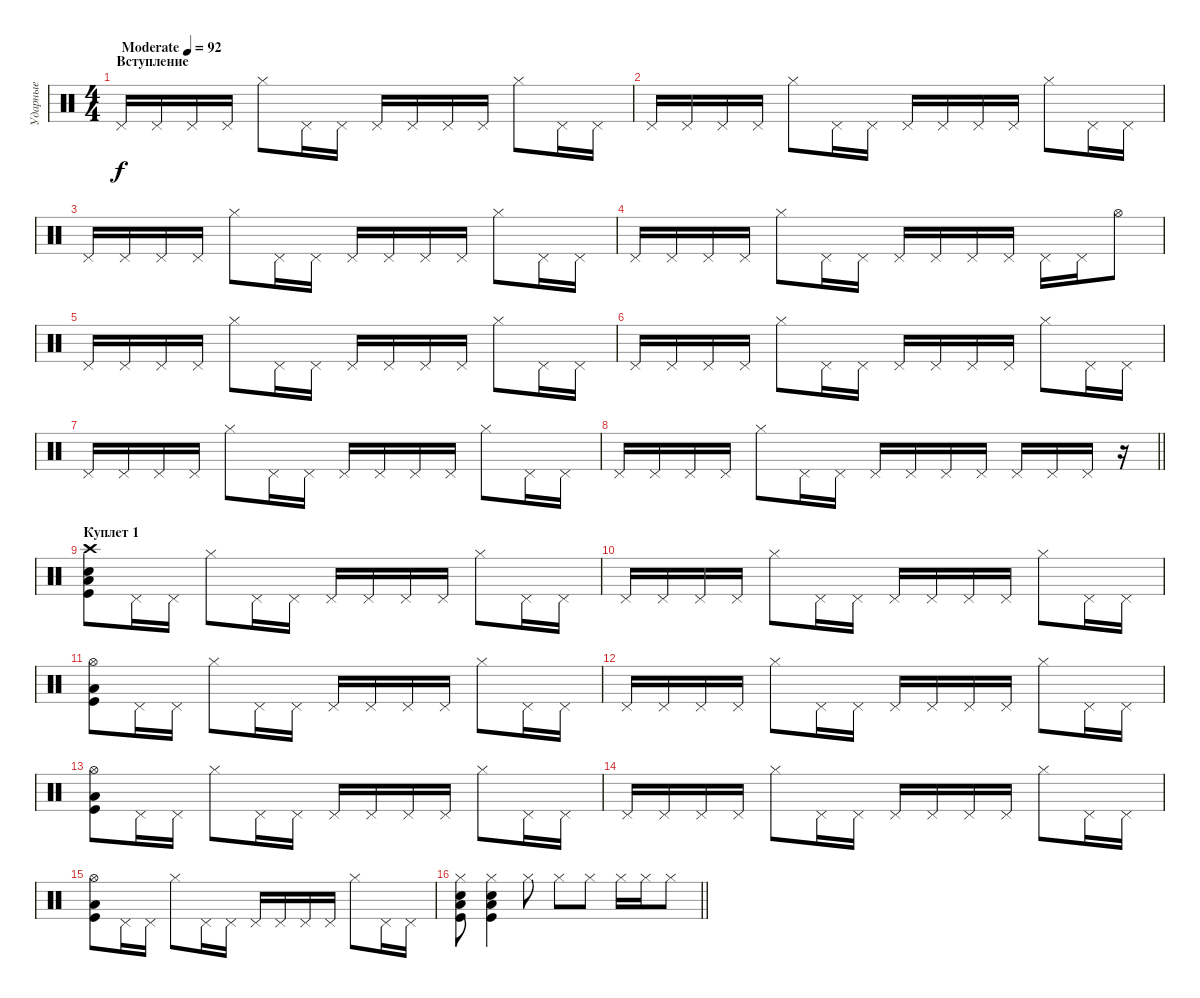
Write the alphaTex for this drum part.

\track ("Ударные" "Ударные") {instrument percussion}
\staff {score}
\articulation defaults
\ts (4 4)
\section ("" "Вступление")
\tempo (92 "Moderate")
\clef neutral
\ks c "Pedal Hi-Hat (hit)".16{dy f} "Pedal Hi-Hat (hit)".16 "Pedal Hi-Hat (hit)".16 "Pedal Hi-Hat (hit)".16 "Hi-Hat (closed)".8 "Pedal Hi-Hat (hit)".16 "Pedal Hi-Hat (hit)".16 "Pedal Hi-Hat (hit)".16 "Pedal Hi-Hat (hit)".16 "Pedal Hi-Hat (hit)".16 "Pedal Hi-Hat (hit)".16 "Hi-Hat (closed)".8 "Pedal Hi-Hat (hit)".16 "Pedal Hi-Hat (hit)".16
|
"Pedal Hi-Hat (hit)".16 "Pedal Hi-Hat (hit)".16 "Pedal Hi-Hat (hit)".16 "Pedal Hi-Hat (hit)".16 "Hi-Hat (closed)".8 "Pedal Hi-Hat (hit)".16 "Pedal Hi-Hat (hit)".16 "Pedal Hi-Hat (hit)".16 "Pedal Hi-Hat (hit)".16 "Pedal Hi-Hat (hit)".16 "Pedal Hi-Hat (hit)".16 "Hi-Hat (closed)".8 "Pedal Hi-Hat (hit)".16 "Pedal Hi-Hat (hit)".16 |
"Pedal Hi-Hat (hit)".16 "Pedal Hi-Hat (hit)".16 "Pedal Hi-Hat (hit)".16 "Pedal Hi-Hat (hit)".16 "Hi-Hat (closed)".8 "Pedal Hi-Hat (hit)".16 "Pedal Hi-Hat (hit)".16 "Pedal Hi-Hat (hit)".16 "Pedal Hi-Hat (hit)".16 "Pedal Hi-Hat (hit)".16 "Pedal Hi-Hat (hit)".16 "Hi-Hat (closed)".8 "Pedal Hi-Hat (hit)".16 "Pedal Hi-Hat (hit)".16 |
"Pedal Hi-Hat (hit)".16 "Pedal Hi-Hat (hit)".16 "Pedal Hi-Hat (hit)".16 "Pedal Hi-Hat (hit)".16 "Hi-Hat (closed)".8 "Pedal Hi-Hat (hit)".16 "Pedal Hi-Hat (hit)".16 "Pedal Hi-Hat (hit)".16 "Pedal Hi-Hat (hit)".16 "Pedal Hi-Hat (hit)".16 "Pedal Hi-Hat (hit)".16 "Pedal Hi-Hat (hit)".16 "Pedal Hi-Hat (hit)".16 "Hi-Hat (open)".8 |
"Pedal Hi-Hat (hit)".16 "Pedal Hi-Hat (hit)".16 "Pedal Hi-Hat (hit)".16 "Pedal Hi-Hat (hit)".16 "Hi-Hat (closed)".8 "Pedal Hi-Hat (hit)".16 "Pedal Hi-Hat (hit)".16 "Pedal Hi-Hat (hit)".16 "Pedal Hi-Hat (hit)".16 "Pedal Hi-Hat (hit)".16 "Pedal Hi-Hat (hit)".16 "Hi-Hat (closed)".8 "Pedal Hi-Hat (hit)".16 "Pedal Hi-Hat (hit)".16 |
"Pedal Hi-Hat (hit)".16 "Pedal Hi-Hat (hit)".16 "Pedal Hi-Hat (hit)".16 "Pedal Hi-Hat (hit)".16 "Hi-Hat (closed)".8 "Pedal Hi-Hat (hit)".16 "Pedal Hi-Hat (hit)".16 "Pedal Hi-Hat (hit)".16 "Pedal Hi-Hat (hit)".16 "Pedal Hi-Hat (hit)".16 "Pedal Hi-Hat (hit)".16 "Hi-Hat (closed)".8 "Pedal Hi-Hat (hit)".16 "Pedal Hi-Hat (hit)".16 |
"Pedal Hi-Hat (hit)".16 "Pedal Hi-Hat (hit)".16 "Pedal Hi-Hat (hit)".16 "Pedal Hi-Hat (hit)".16 "Hi-Hat (closed)".8 "Pedal Hi-Hat (hit)".16 "Pedal Hi-Hat (hit)".16 "Pedal Hi-Hat (hit)".16 "Pedal Hi-Hat (hit)".16 "Pedal Hi-Hat (hit)".16 "Pedal Hi-Hat (hit)".16 "Hi-Hat (closed)".8 "Pedal Hi-Hat (hit)".16 "Pedal Hi-Hat (hit)".16 |
\barLineRight lightlight "Pedal Hi-Hat (hit)".16 "Pedal Hi-Hat (hit)".16 "Pedal Hi-Hat (hit)".16 "Pedal Hi-Hat (hit)".16 "Hi-Hat (closed)".8 "Pedal Hi-Hat (hit)".16 "Pedal Hi-Hat (hit)".16 "Pedal Hi-Hat (hit)".16 "Pedal Hi-Hat (hit)".16 "Pedal Hi-Hat (hit)".16 "Pedal Hi-Hat (hit)".16 "Pedal Hi-Hat (hit)".16 "Pedal Hi-Hat (hit)".16 "Pedal Hi-Hat (hit)".16
r.16 |
\section ("" "Куплет 1")
("Crash high (hit)" "Electric Snare (hit)" "Low Tom (hit)" "Kick (hit)").8 "Pedal Hi-Hat (hit)".16 "Pedal Hi-Hat (hit)".16 "Hi-Hat (closed)".8 "Pedal Hi-Hat (hit)".16 "Pedal Hi-Hat (hit)".16 "Pedal Hi-Hat (hit)".16 "Pedal Hi-Hat (hit)".16 "Pedal Hi-Hat (hit)".16 "Pedal Hi-Hat (hit)".16 "Hi-Hat (closed)".8 "Pedal Hi-Hat (hit)".16 "Pedal Hi-Hat (hit)".16 |
"Pedal Hi-Hat (hit)".16 "Pedal Hi-Hat (hit)".16 "Pedal Hi-Hat (hit)".16 "Pedal Hi-Hat (hit)".16 "Hi-Hat (closed)".8 "Pedal Hi-Hat (hit)".16 "Pedal Hi-Hat (hit)".16 "Pedal Hi-Hat (hit)".16 "Pedal Hi-Hat (hit)".16 "Pedal Hi-Hat (hit)".16 "Pedal Hi-Hat (hit)".16 "Hi-Hat (closed)".8 "Pedal Hi-Hat (hit)".16 "Pedal Hi-Hat (hit)".16 |
("Hi-Hat (open)" "Low Tom (hit)" "Kick (hit)").8 "Pedal Hi-Hat (hit)".16 "Pedal Hi-Hat (hit)".16 "Hi-Hat (closed)".8 "Pedal Hi-Hat (hit)".16 "Pedal Hi-Hat (hit)".16 "Pedal Hi-Hat (hit)".16 "Pedal Hi-Hat (hit)".16 "Pedal Hi-Hat (hit)".16 "Pedal Hi-Hat (hit)".16 "Hi-Hat (closed)".8 "Pedal Hi-Hat (hit)".16 "Pedal Hi-Hat (hit)".16 |
"Pedal Hi-Hat (hit)".16 "Pedal Hi-Hat (hit)".16 "Pedal Hi-Hat (hit)".16 "Pedal Hi-Hat (hit)".16 "Hi-Hat (closed)".8 "Pedal Hi-Hat (hit)".16 "Pedal Hi-Hat (hit)".16 "Pedal Hi-Hat (hit)".16 "Pedal Hi-Hat (hit)".16 "Pedal Hi-Hat (hit)".16 "Pedal Hi-Hat (hit)".16 "Hi-Hat (closed)".8 "Pedal Hi-Hat (hit)".16 "Pedal Hi-Hat (hit)".16 |
("Hi-Hat (open)" "Low Tom (hit)" "Kick (hit)").8 "Pedal Hi-Hat (hit)".16 "Pedal Hi-Hat (hit)".16 "Hi-Hat (closed)".8 "Pedal Hi-Hat (hit)".16 "Pedal Hi-Hat (hit)".16 "Pedal Hi-Hat (hit)".16 "Pedal Hi-Hat (hit)".16 "Pedal Hi-Hat (hit)".16 "Pedal Hi-Hat (hit)".16 "Hi-Hat (closed)".8 "Pedal Hi-Hat (hit)".16 "Pedal Hi-Hat (hit)".16 |
"Pedal Hi-Hat (hit)".16 "Pedal Hi-Hat (hit)".16 "Pedal Hi-Hat (hit)".16 "Pedal Hi-Hat (hit)".16 "Hi-Hat (closed)".8 "Pedal Hi-Hat (hit)".16 "Pedal Hi-Hat (hit)".16 "Pedal Hi-Hat (hit)".16 "Pedal Hi-Hat (hit)".16 "Pedal Hi-Hat (hit)".16 "Pedal Hi-Hat (hit)".16 "Hi-Hat (closed)".8 "Pedal Hi-Hat (hit)".16 "Pedal Hi-Hat (hit)".16 |
("Hi-Hat (open)" "Low Tom (hit)" "Kick (hit)").8 "Pedal Hi-Hat (hit)".16 "Pedal Hi-Hat (hit)".16 "Hi-Hat (closed)".8 "Pedal Hi-Hat (hit)".16 "Pedal Hi-Hat (hit)".16 "Pedal Hi-Hat (hit)".16 "Pedal Hi-Hat (hit)".16 "Pedal Hi-Hat (hit)".16 "Pedal Hi-Hat (hit)".16 "Hi-Hat (closed)".8 "Pedal Hi-Hat (hit)".16 "Pedal Hi-Hat (hit)".16 |
\barLineRight lightlight
("Hi-Hat (closed)" "Electric Snare (hit)" "Low Tom (hit)" "Kick (hit)").8 ("Hi-Hat (closed)" "Electric Snare (hit)" "Low Tom (hit)" "Kick (hit)").4 "Hi-Hat (closed)".8 "Hi-Hat (closed)".8 "Hi-Hat (closed)".8 "Hi-Hat (closed)".16 "Hi-Hat (closed)".16 "Hi-Hat (closed)".8
